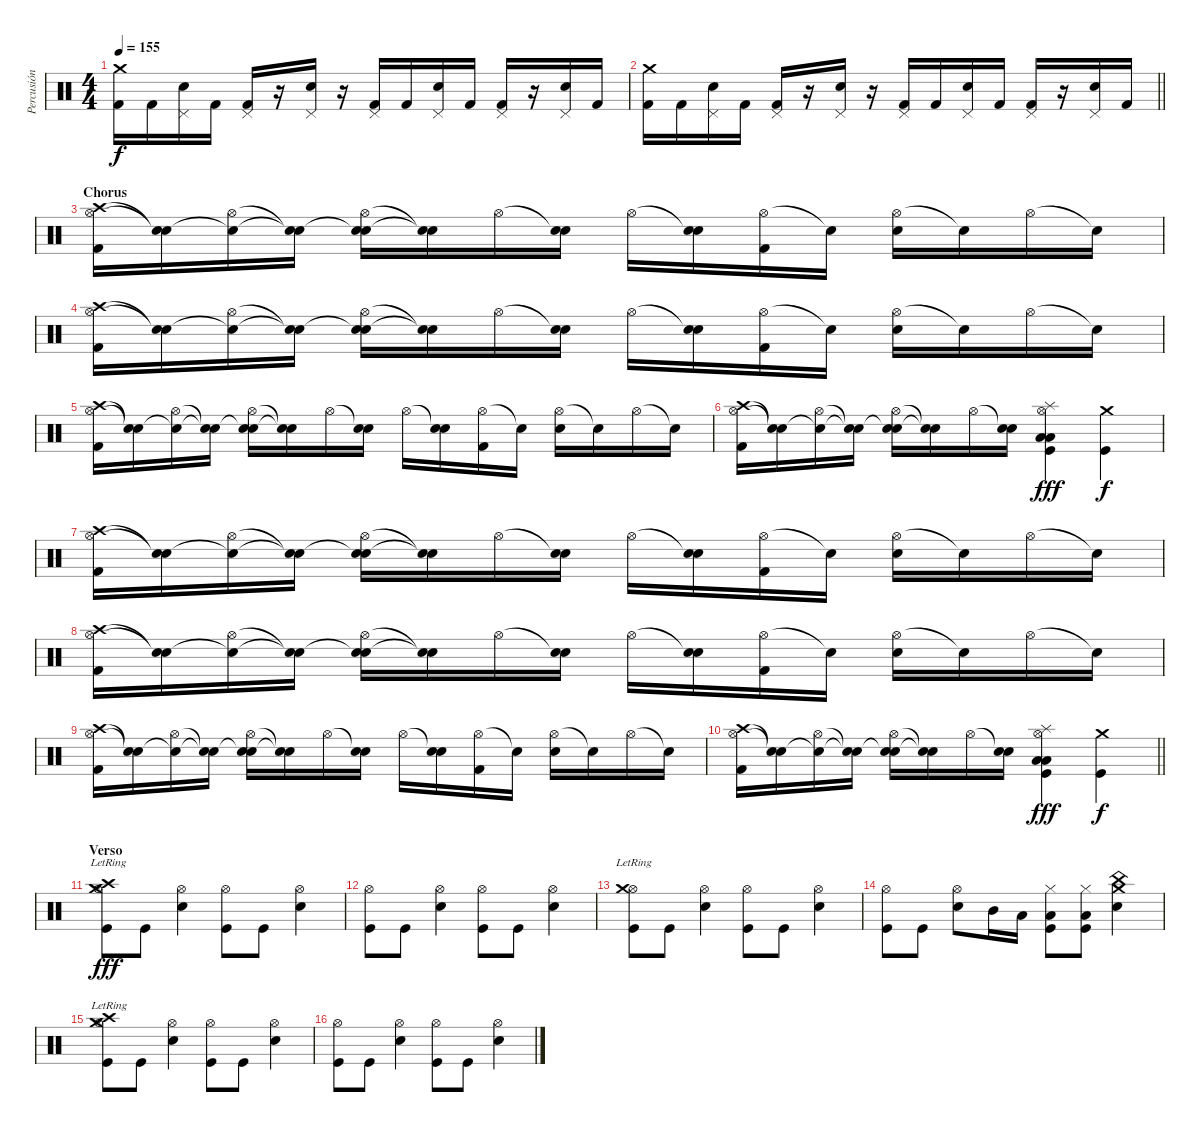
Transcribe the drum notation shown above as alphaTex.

\track ("Percusión (Erik)" "Percusión ") {instrument percussion}
\staff {score}
\articulation defaults
\ts (4 4)
\tempo 155
\clef neutral
\ks c
("Crash medium (hit)" "Kick (hit) 2").16{dy f} "Kick (hit) 2".16 ("Pedal Hi-Hat (hit)" "Electric Snare (hit)").16 "Kick (hit) 2".16 ("Pedal Hi-Hat (hit)" "Kick (hit) 2").16 r.16 ("Pedal Hi-Hat (hit)" "Electric Snare (hit)").16 r.16 ("Pedal Hi-Hat (hit)" "Kick (hit) 2").16 "Kick (hit) 2".16 ("Pedal Hi-Hat (hit)" "Electric Snare (hit)").16 "Kick (hit) 2".16 ("Pedal Hi-Hat (hit)" "Kick (hit) 2").16 r.16 ("Pedal Hi-Hat (hit)" "Electric Snare (hit)").16 "Kick (hit) 2".16 |
\barLineRight lightlight
("Crash medium (hit)" "Kick (hit) 2").16 "Kick (hit) 2".16 ("Pedal Hi-Hat (hit)" "Electric Snare (hit)").16 "Kick (hit) 2".16 ("Pedal Hi-Hat (hit)" "Kick (hit) 2").16 r.16 ("Pedal Hi-Hat (hit)" "Electric Snare (hit)").16 r.16 ("Pedal Hi-Hat (hit)" "Kick (hit) 2").16 "Kick (hit) 2".16 ("Pedal Hi-Hat (hit)" "Electric Snare (hit)").16 "Kick (hit) 2".16 ("Pedal Hi-Hat (hit)" "Kick (hit) 2").16 r.16 ("Pedal Hi-Hat (hit)" "Electric Snare (hit)").16 "Kick (hit) 2".16 |
\section ("" "Chorus")
("Crash high (hit)" "Hi-Hat (open)" "Kick (hit) 2").16{volume 14} ("Snare (hit)"{t} "Snare (hit)"{t}).16 ("Snare (hit)"{t} "Hi-Hat (open)").16 ("Snare (hit)"{t} "Snare (hit)"{t}).16 ("Snare (hit)"{t} "Hi-Hat (open)" "Electric Snare (hit)").16 ("Snare (hit)"{t} "Snare (hit)"{t}).16 "Hi-Hat (open)".16 ("Snare (hit)"{t} "Electric Snare (hit)").16 "Hi-Hat (open)".16 ("Snare (hit)"{t} "Electric Snare (hit)").16 ("Hi-Hat (open)" "Kick (hit) 2").16 "Snare (hit)"{t}.16 ("Hi-Hat (open)" "Electric Snare (hit)").16 "Snare (hit)"{t}.16 "Hi-Hat (open)".16 "Snare (hit)"{t}.16 |
("Crash high (hit)" "Hi-Hat (open)" "Kick (hit) 2").16{volume 14} ("Snare (hit)"{t} "Snare (hit)"{t}).16 ("Snare (hit)"{t} "Hi-Hat (open)").16 ("Snare (hit)"{t} "Snare (hit)"{t}).16 ("Snare (hit)"{t} "Hi-Hat (open)" "Electric Snare (hit)").16 ("Snare (hit)"{t} "Snare (hit)"{t}).16 "Hi-Hat (open)".16 ("Snare (hit)"{t} "Electric Snare (hit)").16 "Hi-Hat (open)".16 ("Snare (hit)"{t} "Electric Snare (hit)").16 ("Hi-Hat (open)" "Kick (hit) 2").16 "Snare (hit)"{t}.16 ("Hi-Hat (open)" "Electric Snare (hit)").16 "Snare (hit)"{t}.16 "Hi-Hat (open)".16 "Snare (hit)"{t}.16 |
("Crash high (hit)" "Hi-Hat (open)" "Kick (hit) 2").16{volume 14} ("Snare (hit)"{t} "Snare (hit)"{t}).16 ("Snare (hit)"{t} "Hi-Hat (open)").16 ("Snare (hit)"{t} "Snare (hit)"{t}).16 ("Snare (hit)"{t} "Hi-Hat (open)" "Electric Snare (hit)").16 ("Snare (hit)"{t} "Snare (hit)"{t}).16 "Hi-Hat (open)".16 ("Snare (hit)"{t} "Electric Snare (hit)").16 "Hi-Hat (open)".16 ("Snare (hit)"{t} "Electric Snare (hit)").16 ("Hi-Hat (open)" "Kick (hit) 2").16 "Snare (hit)"{t}.16 ("Hi-Hat (open)" "Electric Snare (hit)").16 "Snare (hit)"{t}.16 "Hi-Hat (open)".16 "Snare (hit)"{t}.16 |
("Crash high (hit)" "Hi-Hat (open)" "Kick (hit) 2").16{volume 14} ("Snare (hit)"{t} "Snare (hit)"{t}).16 ("Snare (hit)"{t} "Hi-Hat (open)").16 ("Snare (hit)"{t} "Snare (hit)"{t}).16 ("Snare (hit)"{t} "Hi-Hat (open)" "Electric Snare (hit)").16 ("Snare (hit)"{t} "Snare (hit)"{t}).16 "Hi-Hat (open)".16 ("Snare (hit)"{t} "Electric Snare (hit)").16 ("Hi-Hat (open)" "Low Floor Tom (hit)" "Low Tom (hit)" "Kick (hit)" "Splash (hit)").4{dy fff} ("Crash medium (hit)" "Kick (hit)").4{dy f} |
("Crash high (hit)" "Hi-Hat (open)" "Kick (hit) 2").16{volume 14} ("Snare (hit)"{t} "Snare (hit)"{t}).16 ("Snare (hit)"{t} "Hi-Hat (open)").16 ("Snare (hit)"{t} "Snare (hit)"{t}).16 ("Snare (hit)"{t} "Hi-Hat (open)" "Electric Snare (hit)").16 ("Snare (hit)"{t} "Snare (hit)"{t}).16 "Hi-Hat (open)".16 ("Snare (hit)"{t} "Electric Snare (hit)").16 "Hi-Hat (open)".16 ("Snare (hit)"{t} "Electric Snare (hit)").16 ("Hi-Hat (open)" "Kick (hit) 2").16 "Snare (hit)"{t}.16 ("Hi-Hat (open)" "Electric Snare (hit)").16 "Snare (hit)"{t}.16 "Hi-Hat (open)".16 "Snare (hit)"{t}.16 |
("Crash high (hit)" "Hi-Hat (open)" "Kick (hit) 2").16{volume 14} ("Snare (hit)"{t} "Snare (hit)"{t}).16 ("Snare (hit)"{t} "Hi-Hat (open)").16 ("Snare (hit)"{t} "Snare (hit)"{t}).16 ("Snare (hit)"{t} "Hi-Hat (open)" "Electric Snare (hit)").16 ("Snare (hit)"{t} "Snare (hit)"{t}).16 "Hi-Hat (open)".16 ("Snare (hit)"{t} "Electric Snare (hit)").16 "Hi-Hat (open)".16 ("Snare (hit)"{t} "Electric Snare (hit)").16 ("Hi-Hat (open)" "Kick (hit) 2").16 "Snare (hit)"{t}.16 ("Hi-Hat (open)" "Electric Snare (hit)").16 "Snare (hit)"{t}.16 "Hi-Hat (open)".16 "Snare (hit)"{t}.16 |
("Crash high (hit)" "Hi-Hat (open)" "Kick (hit) 2").16{volume 14} ("Snare (hit)"{t} "Snare (hit)"{t}).16 ("Snare (hit)"{t} "Hi-Hat (open)").16 ("Snare (hit)"{t} "Snare (hit)"{t}).16 ("Snare (hit)"{t} "Hi-Hat (open)" "Electric Snare (hit)").16 ("Snare (hit)"{t} "Snare (hit)"{t}).16 "Hi-Hat (open)".16 ("Snare (hit)"{t} "Electric Snare (hit)").16 "Hi-Hat (open)".16 ("Snare (hit)"{t} "Electric Snare (hit)").16 ("Hi-Hat (open)" "Kick (hit) 2").16 "Snare (hit)"{t}.16 ("Hi-Hat (open)" "Electric Snare (hit)").16 "Snare (hit)"{t}.16 "Hi-Hat (open)".16 "Snare (hit)"{t}.16 |
\barLineRight lightlight
("Crash high (hit)" "Hi-Hat (open)" "Kick (hit) 2").16{volume 14} ("Snare (hit)"{t} "Snare (hit)"{t}).16 ("Snare (hit)"{t} "Hi-Hat (open)").16 ("Snare (hit)"{t} "Snare (hit)"{t}).16 ("Snare (hit)"{t} "Hi-Hat (open)" "Electric Snare (hit)").16 ("Snare (hit)"{t} "Snare (hit)"{t}).16 "Hi-Hat (open)".16 ("Snare (hit)"{t} "Electric Snare (hit)").16 ("Hi-Hat (open)" "Low Floor Tom (hit)" "Low Tom (hit)" "Kick (hit)" "Splash (hit)").4{dy fff} ("Crash medium (hit)" "Kick (hit)").4{dy f} |
\section ("" "Verso")
("Crash high (hit)"{lr} "Hi-Hat (open)" "Crash medium (hit)"{lr} "Kick (hit)").8{dy fff} "Kick (hit)".8 ("Hi-Hat (open)" "Snare (hit) 2").4 ("Hi-Hat (open)" "Kick (hit)").8 "Kick (hit)".8 ("Hi-Hat (open)" "Snare (hit) 2").4 |
("Hi-Hat (open)" "Kick (hit)").8 "Kick (hit)".8 ("Hi-Hat (open)" "Snare (hit) 2").4 ("Hi-Hat (open)" "Kick (hit)").8 "Kick (hit)".8 ("Hi-Hat (open)" "Snare (hit) 2").4 |
("Hi-Hat (open)" "Crash medium (hit)"{lr} "Kick (hit)").8 "Kick (hit)".8 ("Hi-Hat (open)" "Snare (hit) 2").4 ("Hi-Hat (open)" "Kick (hit)").8 "Kick (hit)".8 ("Hi-Hat (open)" "Snare (hit) 2").4 |
("Hi-Hat (open)" "Kick (hit)").8 "Kick (hit)".8 ("Hi-Hat (open)" "Snare (hit) 2").8 "Mid Tom (hit)".16 "Low Tom (hit)".16 ("Hi-Hat (closed)" "Low Floor Tom (hit)" "Kick (hit)").8 ("Hi-Hat (closed)" "Low Floor Tom (hit)" "Kick (hit)").8 ("Crash medium (hit)" "China (hit)" "Snare (hit) 2").4 |
("Crash high (hit)"{lr} "Hi-Hat (open)" "Crash medium (hit)"{lr} "Kick (hit)").8 "Kick (hit)".8 ("Hi-Hat (open)" "Snare (hit) 2").4 ("Hi-Hat (open)" "Kick (hit)").8 "Kick (hit)".8 ("Hi-Hat (open)" "Snare (hit) 2").4 |
("Hi-Hat (open)" "Kick (hit)").8 "Kick (hit)".8 ("Hi-Hat (open)" "Snare (hit) 2").4 ("Hi-Hat (open)" "Kick (hit)").8 "Kick (hit)".8 ("Hi-Hat (open)" "Snare (hit) 2").4
